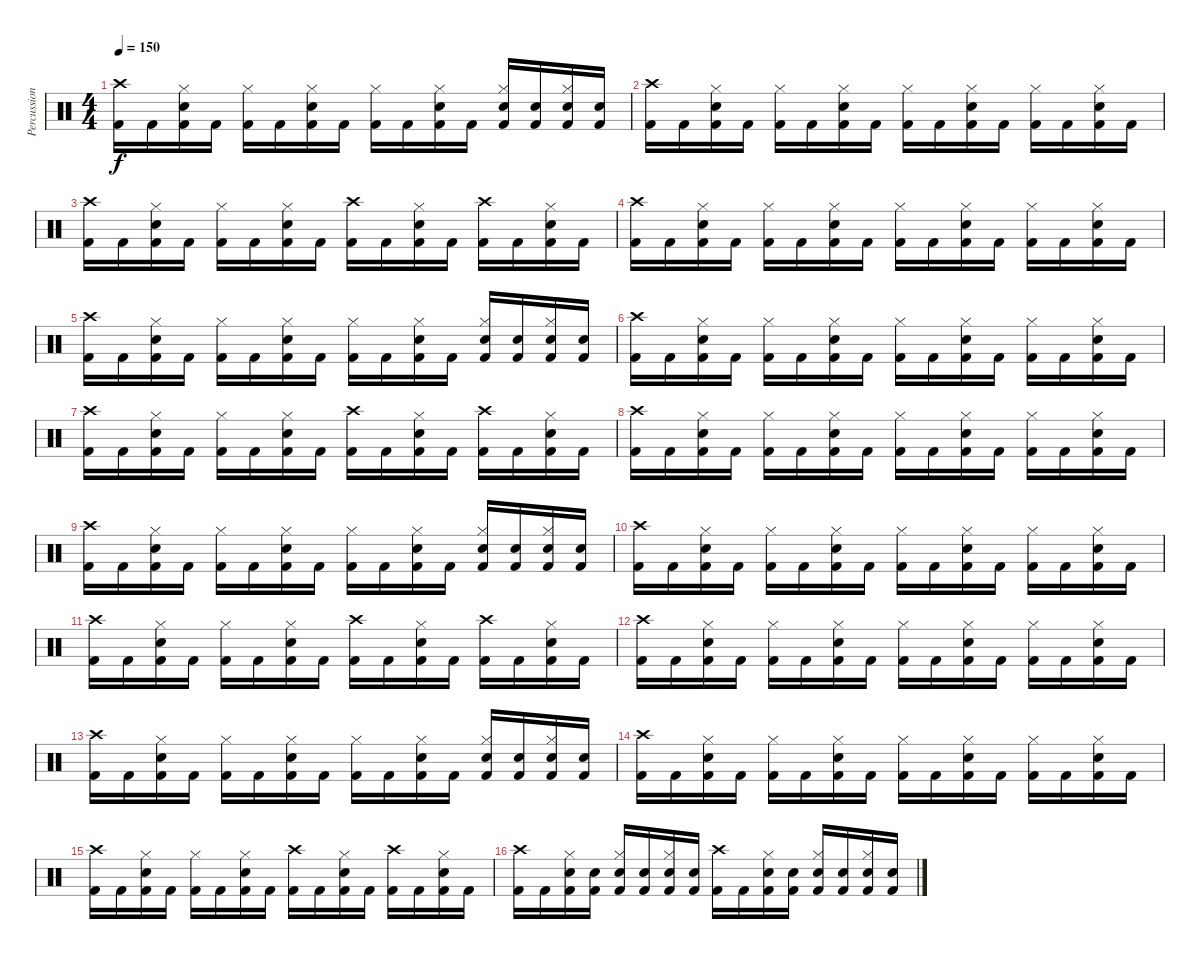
\track ("Percussion" "Percussion") {instrument percussion}
\staff {score}
\articulation defaults
\ts (4 4)
\tempo 150
\clef neutral
\ks c
("Crash high (hit)" "Kick (hit) 2").16{dy f} "Kick (hit) 2".16 ("Hi-Hat (closed)" "Snare (hit) 2" "Kick (hit) 2").16 "Kick (hit) 2".16 ("Hi-Hat (closed)" "Kick (hit) 2").16 "Kick (hit) 2".16 ("Hi-Hat (closed)" "Snare (hit) 2" "Kick (hit) 2").16 "Kick (hit) 2".16 ("Hi-Hat (closed)" "Kick (hit) 2").16 "Kick (hit) 2".16 ("Hi-Hat (closed)" "Snare (hit) 2" "Kick (hit) 2").16 "Kick (hit) 2".16 ("Hi-Hat (closed)" "Snare (hit) 2" "Kick (hit) 2").16 ("Snare (hit) 2" "Kick (hit) 2").16 ("Hi-Hat (closed)" "Snare (hit) 2" "Kick (hit) 2").16 ("Snare (hit) 2" "Kick (hit) 2").16 |
("Crash high (hit)" "Kick (hit) 2").16 "Kick (hit) 2".16 ("Hi-Hat (closed)" "Snare (hit) 2" "Kick (hit) 2").16 "Kick (hit) 2".16 ("Hi-Hat (closed)" "Kick (hit) 2").16 "Kick (hit) 2".16 ("Hi-Hat (closed)" "Snare (hit) 2" "Kick (hit) 2").16 "Kick (hit) 2".16 ("Hi-Hat (closed)" "Kick (hit) 2").16 "Kick (hit) 2".16 ("Hi-Hat (closed)" "Snare (hit) 2" "Kick (hit) 2").16 "Kick (hit) 2".16 ("Hi-Hat (closed)" "Kick (hit) 2").16 "Kick (hit) 2".16 ("Hi-Hat (closed)" "Snare (hit) 2" "Kick (hit) 2").16 "Kick (hit) 2".16 |
("Crash high (hit)" "Kick (hit) 2").16 "Kick (hit) 2".16 ("Hi-Hat (closed)" "Snare (hit) 2" "Kick (hit) 2").16 "Kick (hit) 2".16 ("Hi-Hat (closed)" "Kick (hit) 2").16 "Kick (hit) 2".16 ("Hi-Hat (closed)" "Snare (hit) 2" "Kick (hit) 2").16 "Kick (hit) 2".16 ("Crash high (hit)" "Kick (hit) 2").16 "Kick (hit) 2".16 ("Hi-Hat (closed)" "Snare (hit) 2" "Kick (hit) 2").16 "Kick (hit) 2".16 ("Crash high (hit)" "Kick (hit) 2").16 "Kick (hit) 2".16 ("Hi-Hat (closed)" "Snare (hit) 2" "Kick (hit) 2").16 "Kick (hit) 2".16 |
("Crash high (hit)" "Kick (hit) 2").16 "Kick (hit) 2".16 ("Hi-Hat (closed)" "Snare (hit) 2" "Kick (hit) 2").16 "Kick (hit) 2".16 ("Hi-Hat (closed)" "Kick (hit) 2").16 "Kick (hit) 2".16 ("Hi-Hat (closed)" "Snare (hit) 2" "Kick (hit) 2").16 "Kick (hit) 2".16 ("Hi-Hat (closed)" "Kick (hit) 2").16 "Kick (hit) 2".16 ("Hi-Hat (closed)" "Snare (hit) 2" "Kick (hit) 2").16 "Kick (hit) 2".16 ("Hi-Hat (closed)" "Kick (hit) 2").16 "Kick (hit) 2".16 ("Hi-Hat (closed)" "Snare (hit) 2" "Kick (hit) 2").16 "Kick (hit) 2".16 |
("Crash high (hit)" "Kick (hit) 2").16 "Kick (hit) 2".16 ("Hi-Hat (closed)" "Snare (hit) 2" "Kick (hit) 2").16 "Kick (hit) 2".16 ("Hi-Hat (closed)" "Kick (hit) 2").16 "Kick (hit) 2".16 ("Hi-Hat (closed)" "Snare (hit) 2" "Kick (hit) 2").16 "Kick (hit) 2".16 ("Hi-Hat (closed)" "Kick (hit) 2").16 "Kick (hit) 2".16 ("Hi-Hat (closed)" "Snare (hit) 2" "Kick (hit) 2").16 "Kick (hit) 2".16 ("Hi-Hat (closed)" "Snare (hit) 2" "Kick (hit) 2").16 ("Snare (hit) 2" "Kick (hit) 2").16 ("Hi-Hat (closed)" "Snare (hit) 2" "Kick (hit) 2").16 ("Snare (hit) 2" "Kick (hit) 2").16 |
("Crash high (hit)" "Kick (hit) 2").16 "Kick (hit) 2".16 ("Hi-Hat (closed)" "Snare (hit) 2" "Kick (hit) 2").16 "Kick (hit) 2".16 ("Hi-Hat (closed)" "Kick (hit) 2").16 "Kick (hit) 2".16 ("Hi-Hat (closed)" "Snare (hit) 2" "Kick (hit) 2").16 "Kick (hit) 2".16 ("Hi-Hat (closed)" "Kick (hit) 2").16 "Kick (hit) 2".16 ("Hi-Hat (closed)" "Snare (hit) 2" "Kick (hit) 2").16 "Kick (hit) 2".16 ("Hi-Hat (closed)" "Kick (hit) 2").16 "Kick (hit) 2".16 ("Hi-Hat (closed)" "Snare (hit) 2" "Kick (hit) 2").16 "Kick (hit) 2".16 |
("Crash high (hit)" "Kick (hit) 2").16 "Kick (hit) 2".16 ("Hi-Hat (closed)" "Snare (hit) 2" "Kick (hit) 2").16 "Kick (hit) 2".16 ("Hi-Hat (closed)" "Kick (hit) 2").16 "Kick (hit) 2".16 ("Hi-Hat (closed)" "Snare (hit) 2" "Kick (hit) 2").16 "Kick (hit) 2".16 ("Crash high (hit)" "Kick (hit) 2").16 "Kick (hit) 2".16 ("Hi-Hat (closed)" "Snare (hit) 2" "Kick (hit) 2").16 "Kick (hit) 2".16 ("Crash high (hit)" "Kick (hit) 2").16 "Kick (hit) 2".16 ("Hi-Hat (closed)" "Snare (hit) 2" "Kick (hit) 2").16 "Kick (hit) 2".16 |
("Crash high (hit)" "Kick (hit) 2").16 "Kick (hit) 2".16 ("Hi-Hat (closed)" "Snare (hit) 2" "Kick (hit) 2").16 "Kick (hit) 2".16 ("Hi-Hat (closed)" "Kick (hit) 2").16 "Kick (hit) 2".16 ("Hi-Hat (closed)" "Snare (hit) 2" "Kick (hit) 2").16 "Kick (hit) 2".16 ("Hi-Hat (closed)" "Kick (hit) 2").16 "Kick (hit) 2".16 ("Hi-Hat (closed)" "Snare (hit) 2" "Kick (hit) 2").16 "Kick (hit) 2".16 ("Hi-Hat (closed)" "Kick (hit) 2").16 "Kick (hit) 2".16 ("Hi-Hat (closed)" "Snare (hit) 2" "Kick (hit) 2").16 "Kick (hit) 2".16 |
("Crash high (hit)" "Kick (hit) 2").16 "Kick (hit) 2".16 ("Hi-Hat (closed)" "Snare (hit) 2" "Kick (hit) 2").16 "Kick (hit) 2".16 ("Hi-Hat (closed)" "Kick (hit) 2").16 "Kick (hit) 2".16 ("Hi-Hat (closed)" "Snare (hit) 2" "Kick (hit) 2").16 "Kick (hit) 2".16 ("Hi-Hat (closed)" "Kick (hit) 2").16 "Kick (hit) 2".16 ("Hi-Hat (closed)" "Snare (hit) 2" "Kick (hit) 2").16 "Kick (hit) 2".16 ("Hi-Hat (closed)" "Snare (hit) 2" "Kick (hit) 2").16 ("Snare (hit) 2" "Kick (hit) 2").16 ("Hi-Hat (closed)" "Snare (hit) 2" "Kick (hit) 2").16 ("Snare (hit) 2" "Kick (hit) 2").16 |
("Crash high (hit)" "Kick (hit) 2").16 "Kick (hit) 2".16 ("Hi-Hat (closed)" "Snare (hit) 2" "Kick (hit) 2").16 "Kick (hit) 2".16 ("Hi-Hat (closed)" "Kick (hit) 2").16 "Kick (hit) 2".16 ("Hi-Hat (closed)" "Snare (hit) 2" "Kick (hit) 2").16 "Kick (hit) 2".16 ("Hi-Hat (closed)" "Kick (hit) 2").16 "Kick (hit) 2".16 ("Hi-Hat (closed)" "Snare (hit) 2" "Kick (hit) 2").16 "Kick (hit) 2".16 ("Hi-Hat (closed)" "Kick (hit) 2").16 "Kick (hit) 2".16 ("Hi-Hat (closed)" "Snare (hit) 2" "Kick (hit) 2").16 "Kick (hit) 2".16 |
("Crash high (hit)" "Kick (hit) 2").16 "Kick (hit) 2".16 ("Hi-Hat (closed)" "Snare (hit) 2" "Kick (hit) 2").16 "Kick (hit) 2".16 ("Hi-Hat (closed)" "Kick (hit) 2").16 "Kick (hit) 2".16 ("Hi-Hat (closed)" "Snare (hit) 2" "Kick (hit) 2").16 "Kick (hit) 2".16 ("Crash high (hit)" "Kick (hit) 2").16 "Kick (hit) 2".16 ("Hi-Hat (closed)" "Snare (hit) 2" "Kick (hit) 2").16 "Kick (hit) 2".16 ("Crash high (hit)" "Kick (hit) 2").16 "Kick (hit) 2".16 ("Hi-Hat (closed)" "Snare (hit) 2" "Kick (hit) 2").16 "Kick (hit) 2".16 |
("Crash high (hit)" "Kick (hit) 2").16 "Kick (hit) 2".16 ("Hi-Hat (closed)" "Snare (hit) 2" "Kick (hit) 2").16 "Kick (hit) 2".16 ("Hi-Hat (closed)" "Kick (hit) 2").16 "Kick (hit) 2".16 ("Hi-Hat (closed)" "Snare (hit) 2" "Kick (hit) 2").16 "Kick (hit) 2".16 ("Hi-Hat (closed)" "Kick (hit) 2").16 "Kick (hit) 2".16 ("Hi-Hat (closed)" "Snare (hit) 2" "Kick (hit) 2").16 "Kick (hit) 2".16 ("Hi-Hat (closed)" "Kick (hit) 2").16 "Kick (hit) 2".16 ("Hi-Hat (closed)" "Snare (hit) 2" "Kick (hit) 2").16 "Kick (hit) 2".16 |
("Crash high (hit)" "Kick (hit) 2").16 "Kick (hit) 2".16 ("Hi-Hat (closed)" "Snare (hit) 2" "Kick (hit) 2").16 "Kick (hit) 2".16 ("Hi-Hat (closed)" "Kick (hit) 2").16 "Kick (hit) 2".16 ("Hi-Hat (closed)" "Snare (hit) 2" "Kick (hit) 2").16 "Kick (hit) 2".16 ("Hi-Hat (closed)" "Kick (hit) 2").16 "Kick (hit) 2".16 ("Hi-Hat (closed)" "Snare (hit) 2" "Kick (hit) 2").16 "Kick (hit) 2".16 ("Hi-Hat (closed)" "Snare (hit) 2" "Kick (hit) 2").16 ("Snare (hit) 2" "Kick (hit) 2").16 ("Hi-Hat (closed)" "Snare (hit) 2" "Kick (hit) 2").16 ("Snare (hit) 2" "Kick (hit) 2").16 |
("Crash high (hit)" "Kick (hit) 2").16 "Kick (hit) 2".16 ("Hi-Hat (closed)" "Snare (hit) 2" "Kick (hit) 2").16 "Kick (hit) 2".16 ("Hi-Hat (closed)" "Kick (hit) 2").16 "Kick (hit) 2".16 ("Hi-Hat (closed)" "Snare (hit) 2" "Kick (hit) 2").16 "Kick (hit) 2".16 ("Hi-Hat (closed)" "Kick (hit) 2").16 "Kick (hit) 2".16 ("Hi-Hat (closed)" "Snare (hit) 2" "Kick (hit) 2").16 "Kick (hit) 2".16 ("Hi-Hat (closed)" "Kick (hit) 2").16 "Kick (hit) 2".16 ("Hi-Hat (closed)" "Snare (hit) 2" "Kick (hit) 2").16 "Kick (hit) 2".16 |
("Crash high (hit)" "Kick (hit) 2").16 "Kick (hit) 2".16 ("Hi-Hat (closed)" "Snare (hit) 2" "Kick (hit) 2").16 "Kick (hit) 2".16 ("Hi-Hat (closed)" "Kick (hit) 2").16 "Kick (hit) 2".16 ("Hi-Hat (closed)" "Snare (hit) 2" "Kick (hit) 2").16 "Kick (hit) 2".16 ("Crash high (hit)" "Kick (hit) 2").16 "Kick (hit) 2".16 ("Hi-Hat (closed)" "Snare (hit) 2" "Kick (hit) 2").16 "Kick (hit) 2".16 ("Crash high (hit)" "Kick (hit) 2").16 "Kick (hit) 2".16 ("Hi-Hat (closed)" "Snare (hit) 2" "Kick (hit) 2").16 "Kick (hit) 2".16 |
("Crash high (hit)" "Kick (hit) 2").16 "Kick (hit) 2".16 ("Hi-Hat (closed)" "Snare (hit) 2" "Kick (hit) 2").16 ("Snare (hit) 2" "Kick (hit) 2").16 ("Hi-Hat (closed)" "Snare (hit) 2" "Kick (hit) 2").16 ("Snare (hit) 2" "Kick (hit) 2").16 ("Hi-Hat (closed)" "Snare (hit) 2" "Kick (hit) 2").16 ("Snare (hit) 2" "Kick (hit) 2").16 ("Crash high (hit)" "Kick (hit) 2").16 "Kick (hit) 2".16 ("Hi-Hat (closed)" "Snare (hit) 2" "Kick (hit) 2").16 ("Snare (hit) 2" "Kick (hit) 2").16 ("Hi-Hat (closed)" "Snare (hit) 2" "Kick (hit) 2").16 ("Snare (hit) 2" "Kick (hit) 2").16 ("Hi-Hat (closed)" "Snare (hit) 2" "Kick (hit) 2").16 ("Snare (hit) 2" "Kick (hit) 2").16
